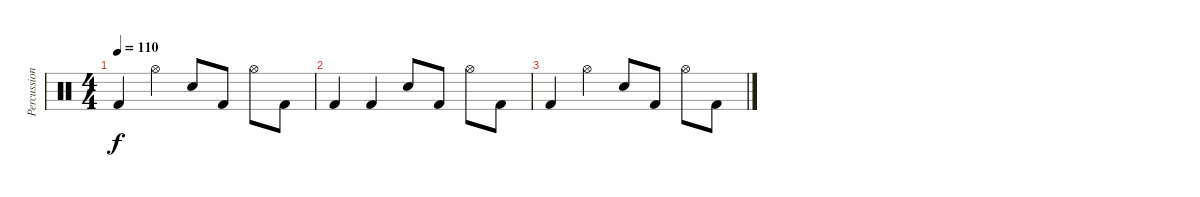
\track ("Percussion" "Percussion") {instrument percussion}
\staff {score}
\articulation defaults
\ts (4 4)
\tempo 110
\clef neutral
\ks c "Kick (hit) 2".4{dy f} "Hi-Hat (open)".4 "Electric Snare (hit)".8 "Kick (hit) 2".8 "Hi-Hat (open)".8 "Kick (hit) 2".8
|
"Kick (hit) 2".4 "Kick (hit) 2".4 "Electric Snare (hit)".8 "Kick (hit) 2".8 "Hi-Hat (open)".8 "Kick (hit) 2".8 |
"Kick (hit) 2".4 "Hi-Hat (open)".4 "Electric Snare (hit)".8 "Kick (hit) 2".8 "Hi-Hat (open)".8 "Kick (hit) 2".8
